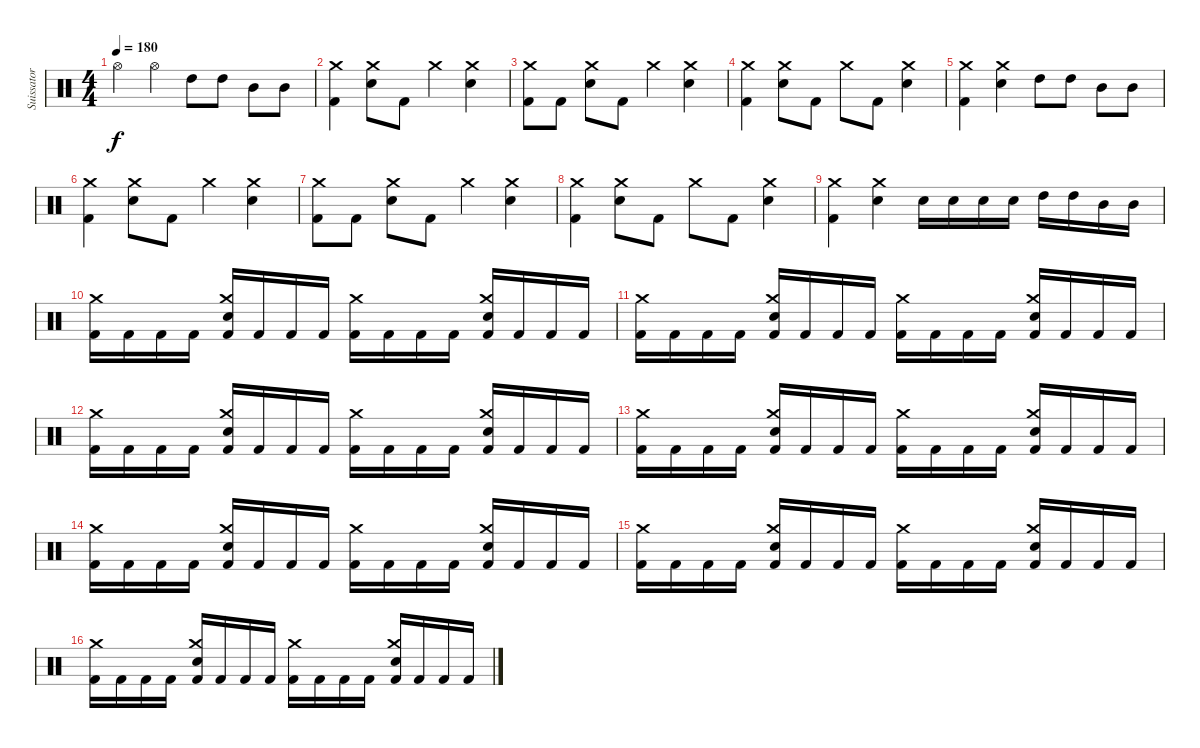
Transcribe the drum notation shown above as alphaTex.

\track ("Suissator" "Suissator") {instrument percussion}
\staff {score}
\articulation defaults
\ts (4 4)
\tempo 180
\clef neutral
\ks c "Hi-Hat (open)".4{dy f} "Hi-Hat (open)".4 "High Tom (hit)".8 "High Tom (hit)".8 "Mid Tom (hit)".8 "Mid Tom (hit)".8
|
("Kick (hit) 2" "Crash medium (hit)").4 ("Electric Snare (hit)" "Crash medium (hit)").8 "Kick (hit) 2".8 "Crash medium (hit)".4 ("Electric Snare (hit)" "Crash medium (hit)").4 |
("Kick (hit) 2" "Crash medium (hit)").8 "Kick (hit) 2".8 ("Electric Snare (hit)" "Crash medium (hit)").8 "Kick (hit) 2".8 "Crash medium (hit)".4 ("Electric Snare (hit)" "Crash medium (hit)").4 |
("Kick (hit) 2" "Crash medium (hit)").4 ("Electric Snare (hit)" "Crash medium (hit)").8 "Kick (hit) 2".8 "Crash medium (hit)".8 "Kick (hit) 2".8 ("Electric Snare (hit)" "Crash medium (hit)").4 |
("Kick (hit) 2" "Crash medium (hit)").4 ("Electric Snare (hit)" "Crash medium (hit)").4 "High Tom (hit)".8 "High Tom (hit)".8 "Mid Tom (hit)".8 "Mid Tom (hit)".8 |
("Kick (hit) 2" "Crash medium (hit)").4 ("Electric Snare (hit)" "Crash medium (hit)").8 "Kick (hit) 2".8 "Crash medium (hit)".4 ("Electric Snare (hit)" "Crash medium (hit)").4 |
("Kick (hit) 2" "Crash medium (hit)").8 "Kick (hit) 2".8 ("Electric Snare (hit)" "Crash medium (hit)").8 "Kick (hit) 2".8 "Crash medium (hit)".4 ("Electric Snare (hit)" "Crash medium (hit)").4 |
("Kick (hit) 2" "Crash medium (hit)").4 ("Electric Snare (hit)" "Crash medium (hit)").8 "Kick (hit) 2".8 "Crash medium (hit)".8 "Kick (hit) 2".8 ("Electric Snare (hit)" "Crash medium (hit)").4 |
("Kick (hit) 2" "Crash medium (hit)").4 ("Electric Snare (hit)" "Crash medium (hit)").4 "Electric Snare (hit)".16 "Electric Snare (hit)".16 "Electric Snare (hit)".16 "Electric Snare (hit)".16 "High Tom (hit)".16 "High Tom (hit)".16 "Mid Tom (hit)".16 "Mid Tom (hit)".16 |
("Kick (hit) 2" "Crash medium (hit)").16 "Kick (hit) 2".16 "Kick (hit) 2".16 "Kick (hit) 2".16 ("Kick (hit) 2" "Electric Snare (hit)" "Crash medium (hit)").16 "Kick (hit) 2".16 "Kick (hit) 2".16 "Kick (hit) 2".16 ("Kick (hit) 2" "Crash medium (hit)").16 "Kick (hit) 2".16 "Kick (hit) 2".16 "Kick (hit) 2".16 ("Kick (hit) 2" "Electric Snare (hit)" "Crash medium (hit)").16 "Kick (hit) 2".16 "Kick (hit) 2".16 "Kick (hit) 2".16 |
("Kick (hit) 2" "Crash medium (hit)").16 "Kick (hit) 2".16 "Kick (hit) 2".16 "Kick (hit) 2".16 ("Kick (hit) 2" "Electric Snare (hit)" "Crash medium (hit)").16 "Kick (hit) 2".16 "Kick (hit) 2".16 "Kick (hit) 2".16 ("Kick (hit) 2" "Crash medium (hit)").16 "Kick (hit) 2".16 "Kick (hit) 2".16 "Kick (hit) 2".16 ("Kick (hit) 2" "Electric Snare (hit)" "Crash medium (hit)").16 "Kick (hit) 2".16 "Kick (hit) 2".16 "Kick (hit) 2".16 |
("Kick (hit) 2" "Crash medium (hit)").16 "Kick (hit) 2".16 "Kick (hit) 2".16 "Kick (hit) 2".16 ("Kick (hit) 2" "Electric Snare (hit)" "Crash medium (hit)").16 "Kick (hit) 2".16 "Kick (hit) 2".16 "Kick (hit) 2".16 ("Kick (hit) 2" "Crash medium (hit)").16 "Kick (hit) 2".16 "Kick (hit) 2".16 "Kick (hit) 2".16 ("Kick (hit) 2" "Electric Snare (hit)" "Crash medium (hit)").16 "Kick (hit) 2".16 "Kick (hit) 2".16 "Kick (hit) 2".16 |
("Kick (hit) 2" "Crash medium (hit)").16 "Kick (hit) 2".16 "Kick (hit) 2".16 "Kick (hit) 2".16 ("Kick (hit) 2" "Electric Snare (hit)" "Crash medium (hit)").16 "Kick (hit) 2".16 "Kick (hit) 2".16 "Kick (hit) 2".16 ("Kick (hit) 2" "Crash medium (hit)").16 "Kick (hit) 2".16 "Kick (hit) 2".16 "Kick (hit) 2".16 ("Kick (hit) 2" "Electric Snare (hit)" "Crash medium (hit)").16 "Kick (hit) 2".16 "Kick (hit) 2".16 "Kick (hit) 2".16 |
("Kick (hit) 2" "Crash medium (hit)").16 "Kick (hit) 2".16 "Kick (hit) 2".16 "Kick (hit) 2".16 ("Kick (hit) 2" "Electric Snare (hit)" "Crash medium (hit)").16 "Kick (hit) 2".16 "Kick (hit) 2".16 "Kick (hit) 2".16 ("Kick (hit) 2" "Crash medium (hit)").16 "Kick (hit) 2".16 "Kick (hit) 2".16 "Kick (hit) 2".16 ("Kick (hit) 2" "Electric Snare (hit)" "Crash medium (hit)").16 "Kick (hit) 2".16 "Kick (hit) 2".16 "Kick (hit) 2".16 |
("Kick (hit) 2" "Crash medium (hit)").16 "Kick (hit) 2".16 "Kick (hit) 2".16 "Kick (hit) 2".16 ("Kick (hit) 2" "Electric Snare (hit)" "Crash medium (hit)").16 "Kick (hit) 2".16 "Kick (hit) 2".16 "Kick (hit) 2".16 ("Kick (hit) 2" "Crash medium (hit)").16 "Kick (hit) 2".16 "Kick (hit) 2".16 "Kick (hit) 2".16 ("Kick (hit) 2" "Electric Snare (hit)" "Crash medium (hit)").16 "Kick (hit) 2".16 "Kick (hit) 2".16 "Kick (hit) 2".16 |
("Kick (hit) 2" "Crash medium (hit)").16 "Kick (hit) 2".16 "Kick (hit) 2".16 "Kick (hit) 2".16 ("Kick (hit) 2" "Electric Snare (hit)" "Crash medium (hit)").16 "Kick (hit) 2".16 "Kick (hit) 2".16 "Kick (hit) 2".16 ("Kick (hit) 2" "Crash medium (hit)").16 "Kick (hit) 2".16 "Kick (hit) 2".16 "Kick (hit) 2".16 ("Kick (hit) 2" "Electric Snare (hit)" "Crash medium (hit)").16 "Kick (hit) 2".16 "Kick (hit) 2".16 "Kick (hit) 2".16
